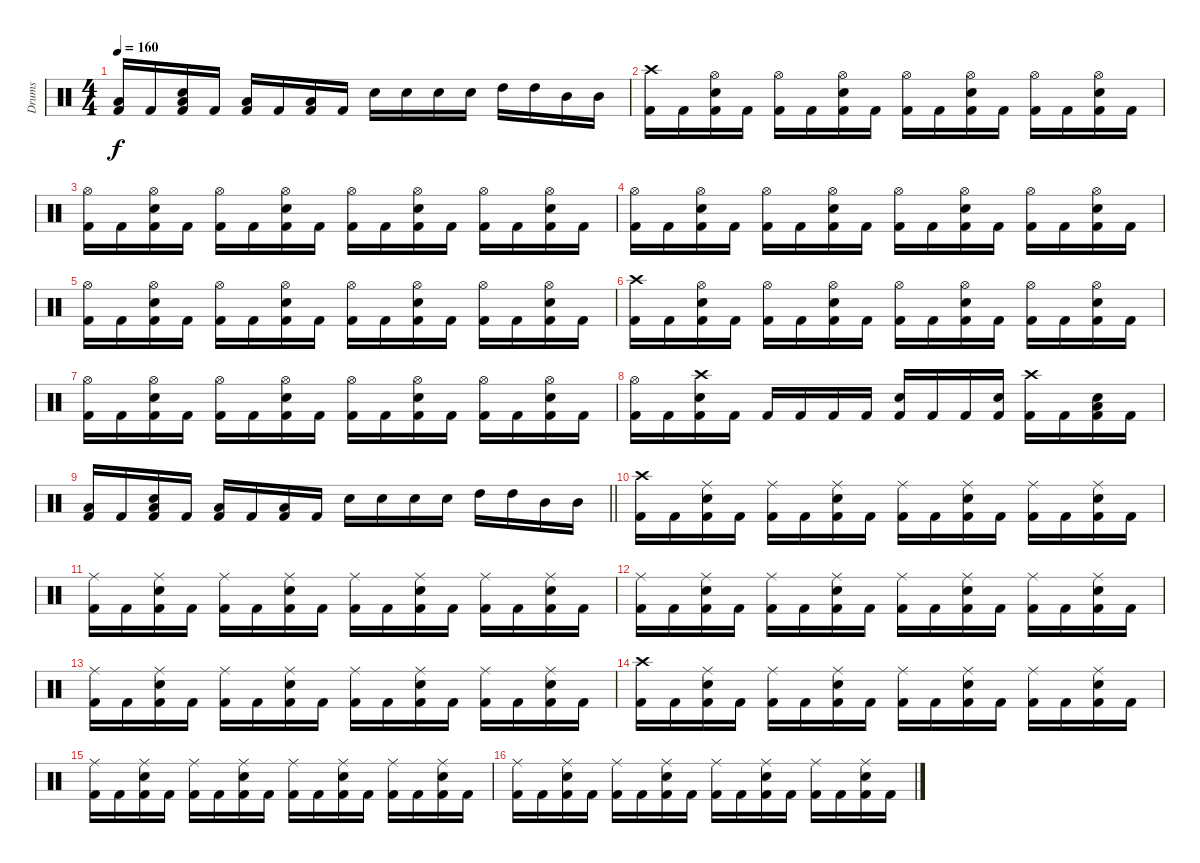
\track ("Drums" "Drums") {instrument percussion}
\staff {score}
\articulation defaults
\ts (4 4)
\tempo 160
\clef neutral
\ks c
("Low Tom (hit)" "Kick (hit) 2").16{dy f} "Kick (hit) 2".16 ("Low Tom (hit)" "Snare (hit) 2" "Kick (hit) 2").16 "Kick (hit) 2".16 ("Low Tom (hit)" "Kick (hit) 2").16 "Kick (hit) 2".16 ("Low Tom (hit)" "Kick (hit) 2").16 "Kick (hit) 2".16 "Snare (hit) 2".16 "Snare (hit) 2".16 "Snare (hit) 2".16 "Snare (hit) 2".16 "High Tom (hit)".16 "High Tom (hit)".16 "Mid Tom (hit)".16 "Mid Tom (hit)".16 |
("Crash high (hit)" "Kick (hit) 2").16 "Kick (hit) 2".16 ("Hi-Hat (open)" "Snare (hit) 2" "Kick (hit) 2").16 "Kick (hit) 2".16 ("Hi-Hat (open)" "Kick (hit) 2").16 "Kick (hit) 2".16 ("Hi-Hat (open)" "Snare (hit) 2" "Kick (hit) 2").16 "Kick (hit) 2".16 ("Hi-Hat (open)" "Kick (hit) 2").16 "Kick (hit) 2".16 ("Hi-Hat (open)" "Snare (hit) 2" "Kick (hit) 2").16 "Kick (hit) 2".16 ("Hi-Hat (open)" "Kick (hit) 2").16 "Kick (hit) 2".16 ("Hi-Hat (open)" "Snare (hit) 2" "Kick (hit) 2").16 "Kick (hit) 2".16 |
("Hi-Hat (open)" "Kick (hit) 2").16 "Kick (hit) 2".16 ("Hi-Hat (open)" "Snare (hit) 2" "Kick (hit) 2").16 "Kick (hit) 2".16 ("Hi-Hat (open)" "Kick (hit) 2").16 "Kick (hit) 2".16 ("Hi-Hat (open)" "Snare (hit) 2" "Kick (hit) 2").16 "Kick (hit) 2".16 ("Hi-Hat (open)" "Kick (hit) 2").16 "Kick (hit) 2".16 ("Hi-Hat (open)" "Snare (hit) 2" "Kick (hit) 2").16 "Kick (hit) 2".16 ("Hi-Hat (open)" "Kick (hit) 2").16 "Kick (hit) 2".16 ("Hi-Hat (open)" "Snare (hit) 2" "Kick (hit) 2").16 "Kick (hit) 2".16 |
("Hi-Hat (open)" "Kick (hit) 2").16 "Kick (hit) 2".16 ("Hi-Hat (open)" "Snare (hit) 2" "Kick (hit) 2").16 "Kick (hit) 2".16 ("Hi-Hat (open)" "Kick (hit) 2").16 "Kick (hit) 2".16 ("Hi-Hat (open)" "Snare (hit) 2" "Kick (hit) 2").16 "Kick (hit) 2".16 ("Hi-Hat (open)" "Kick (hit) 2").16 "Kick (hit) 2".16 ("Hi-Hat (open)" "Snare (hit) 2" "Kick (hit) 2").16 "Kick (hit) 2".16 ("Hi-Hat (open)" "Kick (hit) 2").16 "Kick (hit) 2".16 ("Hi-Hat (open)" "Snare (hit) 2" "Kick (hit) 2").16 "Kick (hit) 2".16 |
("Hi-Hat (open)" "Kick (hit) 2").16 "Kick (hit) 2".16 ("Hi-Hat (open)" "Snare (hit) 2" "Kick (hit) 2").16 "Kick (hit) 2".16 ("Hi-Hat (open)" "Kick (hit) 2").16 "Kick (hit) 2".16 ("Hi-Hat (open)" "Snare (hit) 2" "Kick (hit) 2").16 "Kick (hit) 2".16 ("Hi-Hat (open)" "Kick (hit) 2").16 "Kick (hit) 2".16 ("Hi-Hat (open)" "Snare (hit) 2" "Kick (hit) 2").16 "Kick (hit) 2".16 ("Hi-Hat (open)" "Kick (hit) 2").16 "Kick (hit) 2".16 ("Hi-Hat (open)" "Snare (hit) 2" "Kick (hit) 2").16 "Kick (hit) 2".16 |
("Crash high (hit)" "Kick (hit) 2").16 "Kick (hit) 2".16 ("Hi-Hat (open)" "Snare (hit) 2" "Kick (hit) 2").16 "Kick (hit) 2".16 ("Hi-Hat (open)" "Kick (hit) 2").16 "Kick (hit) 2".16 ("Hi-Hat (open)" "Snare (hit) 2" "Kick (hit) 2").16 "Kick (hit) 2".16 ("Hi-Hat (open)" "Kick (hit) 2").16 "Kick (hit) 2".16 ("Hi-Hat (open)" "Snare (hit) 2" "Kick (hit) 2").16 "Kick (hit) 2".16 ("Hi-Hat (open)" "Kick (hit) 2").16 "Kick (hit) 2".16 ("Hi-Hat (open)" "Snare (hit) 2" "Kick (hit) 2").16 "Kick (hit) 2".16 |
("Hi-Hat (open)" "Kick (hit) 2").16 "Kick (hit) 2".16 ("Hi-Hat (open)" "Snare (hit) 2" "Kick (hit) 2").16 "Kick (hit) 2".16 ("Hi-Hat (open)" "Kick (hit) 2").16 "Kick (hit) 2".16 ("Hi-Hat (open)" "Snare (hit) 2" "Kick (hit) 2").16 "Kick (hit) 2".16 ("Hi-Hat (open)" "Kick (hit) 2").16 "Kick (hit) 2".16 ("Hi-Hat (open)" "Snare (hit) 2" "Kick (hit) 2").16 "Kick (hit) 2".16 ("Hi-Hat (open)" "Kick (hit) 2").16 "Kick (hit) 2".16 ("Hi-Hat (open)" "Snare (hit) 2" "Kick (hit) 2").16 "Kick (hit) 2".16 |
("Hi-Hat (open)" "Kick (hit) 2").16 "Kick (hit) 2".16 ("Crash high (hit)" "Snare (hit) 2" "Kick (hit) 2").16 "Kick (hit) 2".16 "Kick (hit) 2".16 "Kick (hit) 2".16 "Kick (hit) 2".16 "Kick (hit) 2".16 ("Snare (hit) 2" "Kick (hit) 2").16 "Kick (hit) 2".16 "Kick (hit) 2".16 ("Snare (hit) 2" "Kick (hit) 2").16 ("Crash high (hit)" "Kick (hit) 2").16 "Kick (hit) 2".16 ("Low Tom (hit)" "Snare (hit) 2" "Kick (hit) 2").16 "Kick (hit) 2".16 |
\barLineRight lightlight
("Low Tom (hit)" "Kick (hit) 2").16 "Kick (hit) 2".16 ("Low Tom (hit)" "Snare (hit) 2" "Kick (hit) 2").16 "Kick (hit) 2".16 ("Low Tom (hit)" "Kick (hit) 2").16 "Kick (hit) 2".16 ("Low Tom (hit)" "Kick (hit) 2").16 "Kick (hit) 2".16 "Snare (hit) 2".16 "Snare (hit) 2".16 "Snare (hit) 2".16 "Snare (hit) 2".16 "High Tom (hit)".16 "High Tom (hit)".16 "Mid Tom (hit)".16 "Mid Tom (hit)".16 |
("Crash high (hit)" "Kick (hit) 2").16 "Kick (hit) 2".16 ("Ride (middle)" "Snare (hit) 2" "Kick (hit) 2").16 "Kick (hit) 2".16 ("Ride (middle)" "Kick (hit) 2").16 "Kick (hit) 2".16 ("Ride (middle)" "Snare (hit) 2" "Kick (hit) 2").16 "Kick (hit) 2".16 ("Ride (middle)" "Kick (hit) 2").16 "Kick (hit) 2".16 ("Ride (middle)" "Snare (hit) 2" "Kick (hit) 2").16 "Kick (hit) 2".16 ("Ride (middle)" "Kick (hit) 2").16 "Kick (hit) 2".16 ("Ride (middle)" "Snare (hit) 2" "Kick (hit) 2").16 "Kick (hit) 2".16 |
("Ride (middle)" "Kick (hit) 2").16 "Kick (hit) 2".16 ("Ride (middle)" "Snare (hit) 2" "Kick (hit) 2").16 "Kick (hit) 2".16 ("Ride (middle)" "Kick (hit) 2").16 "Kick (hit) 2".16 ("Ride (middle)" "Snare (hit) 2" "Kick (hit) 2").16 "Kick (hit) 2".16 ("Ride (middle)" "Kick (hit) 2").16 "Kick (hit) 2".16 ("Ride (middle)" "Snare (hit) 2" "Kick (hit) 2").16 "Kick (hit) 2".16 ("Ride (middle)" "Kick (hit) 2").16 "Kick (hit) 2".16 ("Ride (middle)" "Snare (hit) 2" "Kick (hit) 2").16 "Kick (hit) 2".16 |
("Ride (middle)" "Kick (hit) 2").16 "Kick (hit) 2".16 ("Ride (middle)" "Snare (hit) 2" "Kick (hit) 2").16 "Kick (hit) 2".16 ("Ride (middle)" "Kick (hit) 2").16 "Kick (hit) 2".16 ("Ride (middle)" "Snare (hit) 2" "Kick (hit) 2").16 "Kick (hit) 2".16 ("Ride (middle)" "Kick (hit) 2").16 "Kick (hit) 2".16 ("Ride (middle)" "Snare (hit) 2" "Kick (hit) 2").16 "Kick (hit) 2".16 ("Ride (middle)" "Kick (hit) 2").16 "Kick (hit) 2".16 ("Ride (middle)" "Snare (hit) 2" "Kick (hit) 2").16 "Kick (hit) 2".16 |
("Ride (middle)" "Kick (hit) 2").16 "Kick (hit) 2".16 ("Ride (middle)" "Snare (hit) 2" "Kick (hit) 2").16 "Kick (hit) 2".16 ("Ride (middle)" "Kick (hit) 2").16 "Kick (hit) 2".16 ("Ride (middle)" "Snare (hit) 2" "Kick (hit) 2").16 "Kick (hit) 2".16 ("Ride (middle)" "Kick (hit) 2").16 "Kick (hit) 2".16 ("Ride (middle)" "Snare (hit) 2" "Kick (hit) 2").16 "Kick (hit) 2".16 ("Ride (middle)" "Kick (hit) 2").16 "Kick (hit) 2".16 ("Ride (middle)" "Snare (hit) 2" "Kick (hit) 2").16 "Kick (hit) 2".16 |
("Crash high (hit)" "Kick (hit) 2").16 "Kick (hit) 2".16 ("Ride (middle)" "Snare (hit) 2" "Kick (hit) 2").16 "Kick (hit) 2".16 ("Ride (middle)" "Kick (hit) 2").16 "Kick (hit) 2".16 ("Ride (middle)" "Snare (hit) 2" "Kick (hit) 2").16 "Kick (hit) 2".16 ("Ride (middle)" "Kick (hit) 2").16 "Kick (hit) 2".16 ("Ride (middle)" "Snare (hit) 2" "Kick (hit) 2").16 "Kick (hit) 2".16 ("Ride (middle)" "Kick (hit) 2").16 "Kick (hit) 2".16 ("Ride (middle)" "Snare (hit) 2" "Kick (hit) 2").16 "Kick (hit) 2".16 |
("Ride (middle)" "Kick (hit) 2").16 "Kick (hit) 2".16 ("Ride (middle)" "Snare (hit) 2" "Kick (hit) 2").16 "Kick (hit) 2".16 ("Ride (middle)" "Kick (hit) 2").16 "Kick (hit) 2".16 ("Ride (middle)" "Snare (hit) 2" "Kick (hit) 2").16 "Kick (hit) 2".16 ("Ride (middle)" "Kick (hit) 2").16 "Kick (hit) 2".16 ("Ride (middle)" "Snare (hit) 2" "Kick (hit) 2").16 "Kick (hit) 2".16 ("Ride (middle)" "Kick (hit) 2").16 "Kick (hit) 2".16 ("Ride (middle)" "Snare (hit) 2" "Kick (hit) 2").16 "Kick (hit) 2".16 |
("Ride (middle)" "Kick (hit) 2").16 "Kick (hit) 2".16 ("Ride (middle)" "Snare (hit) 2" "Kick (hit) 2").16 "Kick (hit) 2".16 ("Ride (middle)" "Kick (hit) 2").16 "Kick (hit) 2".16 ("Ride (middle)" "Snare (hit) 2" "Kick (hit) 2").16 "Kick (hit) 2".16 ("Ride (middle)" "Kick (hit) 2").16 "Kick (hit) 2".16 ("Ride (middle)" "Snare (hit) 2" "Kick (hit) 2").16 "Kick (hit) 2".16 ("Ride (middle)" "Kick (hit) 2").16 "Kick (hit) 2".16 ("Ride (middle)" "Snare (hit) 2" "Kick (hit) 2").16 "Kick (hit) 2".16
